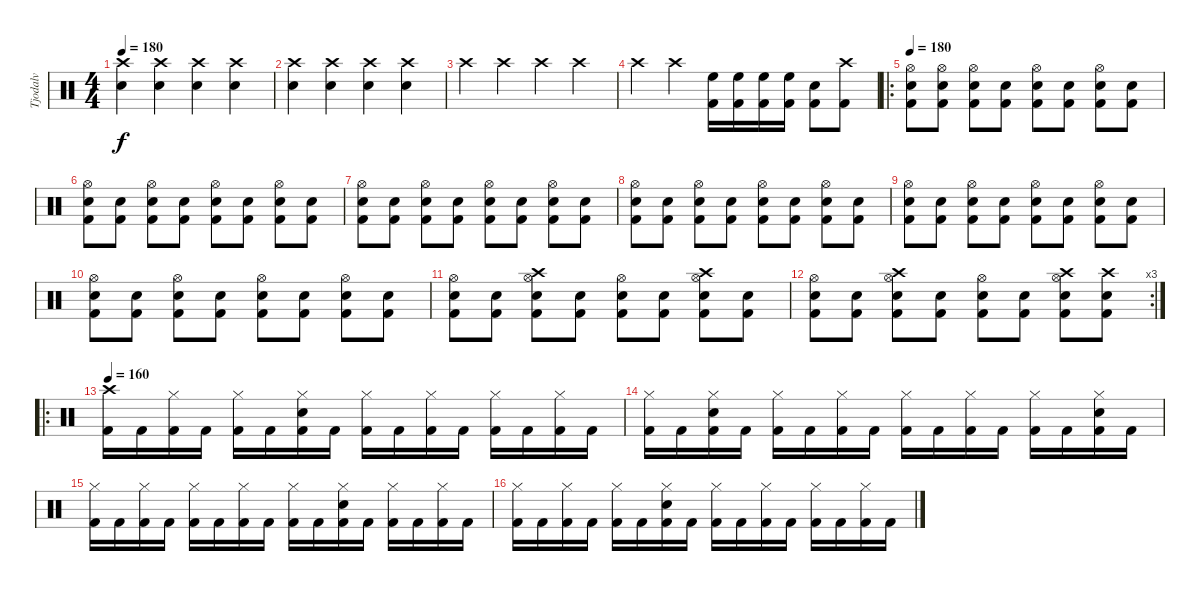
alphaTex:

\track ("Tjodalv" "Tjodalv") {instrument percussion}
\staff {score}
\articulation defaults
\ts (4 4)
\tempo 180
\clef neutral
\ks c
("Crash high (hit)" "Snare (hit) 2").4{dy f} ("Crash high (hit)" "Snare (hit) 2").4 ("Crash high (hit)" "Snare (hit) 2").4 ("Crash high (hit)" "Snare (hit) 2").4 |
("Crash high (hit)" "Snare (hit) 2").4 ("Crash high (hit)" "Snare (hit) 2").4 ("Crash high (hit)" "Snare (hit) 2").4 ("Crash high (hit)" "Snare (hit) 2").4 |
"Crash high (hit)".4 "Crash high (hit)".4 "Crash high (hit)".4 "Crash high (hit)".4 |
"Crash high (hit)".4 "Crash high (hit)".4 ("High Floor Tom (hit)" "Kick (hit) 2").16 ("High Floor Tom (hit)" "Kick (hit) 2").16 ("High Floor Tom (hit)" "Kick (hit) 2").16 ("High Floor Tom (hit)" "Kick (hit) 2").16 ("Snare (hit) 2" "Kick (hit) 2").8 ("Crash high (hit)" "Kick (hit) 2").8 |
\ro
\tempo 180
("Hi-Hat (open)" "Snare (hit) 2" "Kick (hit) 2").8 ("Hi-Hat (open)" "Snare (hit) 2" "Kick (hit) 2").8 ("Hi-Hat (open)" "Snare (hit) 2" "Kick (hit) 2").8 ("Snare (hit) 2" "Kick (hit) 2").8 ("Hi-Hat (open)" "Snare (hit) 2" "Kick (hit) 2").8 ("Snare (hit) 2" "Kick (hit) 2").8 ("Hi-Hat (open)" "Snare (hit) 2" "Kick (hit) 2").8 ("Snare (hit) 2" "Kick (hit) 2").8 |
("Hi-Hat (open)" "Snare (hit) 2" "Kick (hit) 2").8 ("Snare (hit) 2" "Kick (hit) 2").8 ("Hi-Hat (open)" "Snare (hit) 2" "Kick (hit) 2").8 ("Snare (hit) 2" "Kick (hit) 2").8 ("Hi-Hat (open)" "Snare (hit) 2" "Kick (hit) 2").8 ("Snare (hit) 2" "Kick (hit) 2").8 ("Hi-Hat (open)" "Snare (hit) 2" "Kick (hit) 2").8 ("Snare (hit) 2" "Kick (hit) 2").8 |
("Hi-Hat (open)" "Snare (hit) 2" "Kick (hit) 2").8 ("Snare (hit) 2" "Kick (hit) 2").8 ("Hi-Hat (open)" "Snare (hit) 2" "Kick (hit) 2").8 ("Snare (hit) 2" "Kick (hit) 2").8 ("Hi-Hat (open)" "Snare (hit) 2" "Kick (hit) 2").8 ("Snare (hit) 2" "Kick (hit) 2").8 ("Hi-Hat (open)" "Snare (hit) 2" "Kick (hit) 2").8 ("Snare (hit) 2" "Kick (hit) 2").8 |
("Hi-Hat (open)" "Snare (hit) 2" "Kick (hit) 2").8 ("Snare (hit) 2" "Kick (hit) 2").8 ("Hi-Hat (open)" "Snare (hit) 2" "Kick (hit) 2").8 ("Snare (hit) 2" "Kick (hit) 2").8 ("Hi-Hat (open)" "Snare (hit) 2" "Kick (hit) 2").8 ("Snare (hit) 2" "Kick (hit) 2").8 ("Hi-Hat (open)" "Snare (hit) 2" "Kick (hit) 2").8 ("Snare (hit) 2" "Kick (hit) 2").8 |
("Hi-Hat (open)" "Snare (hit) 2" "Kick (hit) 2").8 ("Snare (hit) 2" "Kick (hit) 2").8 ("Hi-Hat (open)" "Snare (hit) 2" "Kick (hit) 2").8 ("Snare (hit) 2" "Kick (hit) 2").8 ("Hi-Hat (open)" "Snare (hit) 2" "Kick (hit) 2").8 ("Snare (hit) 2" "Kick (hit) 2").8 ("Hi-Hat (open)" "Snare (hit) 2" "Kick (hit) 2").8 ("Snare (hit) 2" "Kick (hit) 2").8 |
("Hi-Hat (open)" "Snare (hit) 2" "Kick (hit) 2").8 ("Snare (hit) 2" "Kick (hit) 2").8 ("Hi-Hat (open)" "Snare (hit) 2" "Kick (hit) 2").8 ("Snare (hit) 2" "Kick (hit) 2").8 ("Hi-Hat (open)" "Snare (hit) 2" "Kick (hit) 2").8 ("Snare (hit) 2" "Kick (hit) 2").8 ("Hi-Hat (open)" "Snare (hit) 2" "Kick (hit) 2").8 ("Snare (hit) 2" "Kick (hit) 2").8 |
("Hi-Hat (open)" "Snare (hit) 2" "Kick (hit) 2").8 ("Snare (hit) 2" "Kick (hit) 2").8 ("Crash high (hit)" "Hi-Hat (open)" "Snare (hit) 2" "Kick (hit) 2").8 ("Snare (hit) 2" "Kick (hit) 2").8 ("Hi-Hat (open)" "Snare (hit) 2" "Kick (hit) 2").8 ("Snare (hit) 2" "Kick (hit) 2").8 ("Crash high (hit)" "Hi-Hat (open)" "Snare (hit) 2" "Kick (hit) 2").8 ("Snare (hit) 2" "Kick (hit) 2").8 |
\rc 3
("Hi-Hat (open)" "Snare (hit) 2" "Kick (hit) 2").8 ("Snare (hit) 2" "Kick (hit) 2").8 ("Crash high (hit)" "Hi-Hat (open)" "Snare (hit) 2" "Kick (hit) 2").8 ("Snare (hit) 2" "Kick (hit) 2").8 ("Hi-Hat (open)" "Snare (hit) 2" "Kick (hit) 2").8 ("Snare (hit) 2" "Kick (hit) 2").8 ("Crash high (hit)" "Hi-Hat (open)" "Snare (hit) 2" "Kick (hit) 2").8 ("Crash high (hit)" "Snare (hit) 2" "Kick (hit) 2").8 |
\ro
\tempo 160
("Crash high (hit)" "Kick (hit) 2").16 "Kick (hit) 2".16 ("Hi-Hat (closed)" "Kick (hit) 2").16 "Kick (hit) 2".16 ("Hi-Hat (closed)" "Kick (hit) 2").16 "Kick (hit) 2".16 ("Hi-Hat (closed)" "Snare (hit) 2" "Kick (hit) 2").16 "Kick (hit) 2".16 ("Hi-Hat (closed)" "Kick (hit) 2").16 "Kick (hit) 2".16 ("Hi-Hat (closed)" "Kick (hit) 2").16 "Kick (hit) 2".16 ("Hi-Hat (closed)" "Kick (hit) 2").16 "Kick (hit) 2".16 ("Hi-Hat (closed)" "Kick (hit) 2").16 "Kick (hit) 2".16 |
("Hi-Hat (closed)" "Kick (hit) 2").16 "Kick (hit) 2".16 ("Hi-Hat (closed)" "Snare (hit) 2" "Kick (hit) 2").16 "Kick (hit) 2".16 ("Hi-Hat (closed)" "Kick (hit) 2").16 "Kick (hit) 2".16 ("Hi-Hat (closed)" "Kick (hit) 2").16 "Kick (hit) 2".16 ("Hi-Hat (closed)" "Kick (hit) 2").16 "Kick (hit) 2".16 ("Hi-Hat (closed)" "Kick (hit) 2").16 "Kick (hit) 2".16 ("Hi-Hat (closed)" "Kick (hit) 2").16 "Kick (hit) 2".16 ("Hi-Hat (closed)" "Snare (hit) 2" "Kick (hit) 2").16 "Kick (hit) 2".16 |
("Hi-Hat (closed)" "Kick (hit) 2").16 "Kick (hit) 2".16 ("Hi-Hat (closed)" "Kick (hit) 2").16 "Kick (hit) 2".16 ("Hi-Hat (closed)" "Kick (hit) 2").16 "Kick (hit) 2".16 ("Hi-Hat (closed)" "Kick (hit) 2").16 "Kick (hit) 2".16 ("Hi-Hat (closed)" "Kick (hit) 2").16 "Kick (hit) 2".16 ("Hi-Hat (closed)" "Snare (hit) 2" "Kick (hit) 2").16 "Kick (hit) 2".16 ("Hi-Hat (closed)" "Kick (hit) 2").16 "Kick (hit) 2".16 ("Hi-Hat (closed)" "Kick (hit) 2").16 "Kick (hit) 2".16 |
("Hi-Hat (closed)" "Kick (hit) 2").16 "Kick (hit) 2".16 ("Hi-Hat (closed)" "Kick (hit) 2").16 "Kick (hit) 2".16 ("Hi-Hat (closed)" "Kick (hit) 2").16 "Kick (hit) 2".16 ("Hi-Hat (closed)" "Snare (hit) 2" "Kick (hit) 2").16 "Kick (hit) 2".16 ("Hi-Hat (closed)" "Kick (hit) 2").16 "Kick (hit) 2".16 ("Hi-Hat (closed)" "Kick (hit) 2").16 "Kick (hit) 2".16 ("Hi-Hat (closed)" "Kick (hit) 2").16 "Kick (hit) 2".16 ("Hi-Hat (closed)" "Kick (hit) 2").16 "Kick (hit) 2".16
